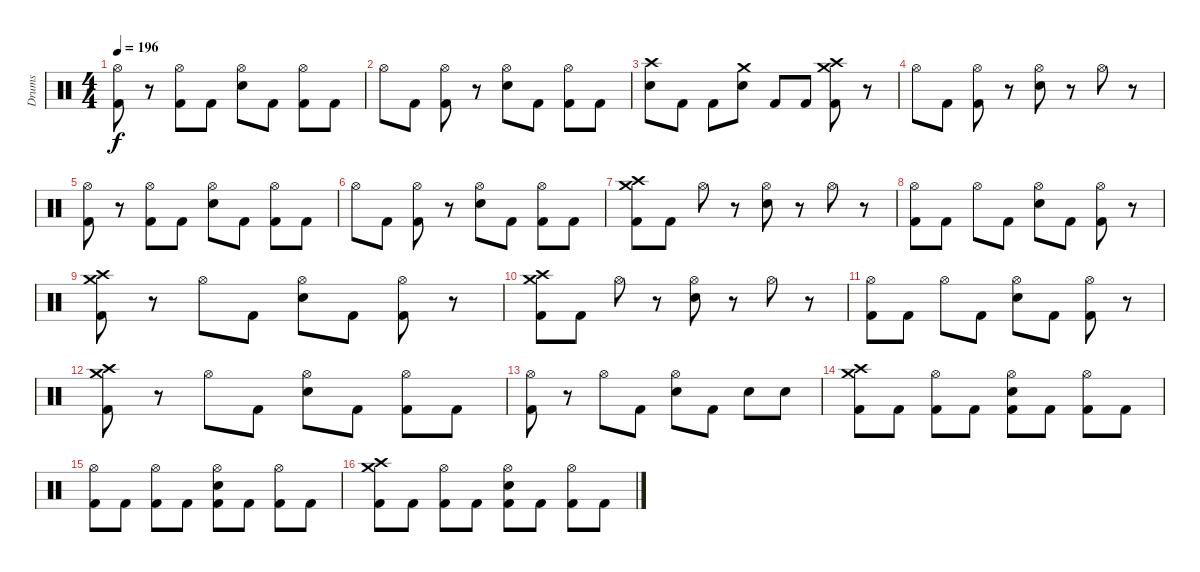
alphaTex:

\track ("Drums" "Drums") {instrument percussion}
\staff {score}
\articulation defaults
\ts (4 4)
\tempo 196
\clef neutral
\ks c
("Hi-Hat (open)" "Kick (hit) 2").8{dy f} r.8 ("Hi-Hat (open)" "Kick (hit) 2").8 "Kick (hit) 2".8 ("Hi-Hat (open)" "Snare (hit) 2").8 "Kick (hit) 2".8 ("Hi-Hat (open)" "Kick (hit) 2").8 "Kick (hit) 2".8 |
"Hi-Hat (open)".8 "Kick (hit) 2".8 ("Hi-Hat (open)" "Kick (hit) 2").8 r.8 ("Hi-Hat (open)" "Snare (hit) 2").8 "Kick (hit) 2".8 ("Hi-Hat (open)" "Kick (hit) 2").8 "Kick (hit) 2".8 |
("Crash high (hit)" "Snare (hit) 2").8 "Kick (hit) 2".8 "Kick (hit) 2".8 ("Crash medium (hit)" "Snare (hit) 2").8 "Kick (hit) 2".8 "Kick (hit) 2".8 ("Crash high (hit)" "Crash medium (hit)" "Kick (hit) 2").8 r.8 |
"Hi-Hat (open)".8 "Kick (hit) 2".8 ("Hi-Hat (open)" "Kick (hit) 2").8 r.8 ("Hi-Hat (open)" "Snare (hit) 2").8 r.8 "Hi-Hat (open)".8 r.8 |
("Hi-Hat (open)" "Kick (hit) 2").8 r.8 ("Hi-Hat (open)" "Kick (hit) 2").8 "Kick (hit) 2".8 ("Hi-Hat (open)" "Snare (hit) 2").8 "Kick (hit) 2".8 ("Hi-Hat (open)" "Kick (hit) 2").8 "Kick (hit) 2".8 |
"Hi-Hat (open)".8 "Kick (hit) 2".8 ("Hi-Hat (open)" "Kick (hit) 2").8 r.8 ("Hi-Hat (open)" "Snare (hit) 2").8 "Kick (hit) 2".8 ("Hi-Hat (open)" "Kick (hit) 2").8 "Kick (hit) 2".8 |
("Crash high (hit)" "Crash medium (hit)" "Kick (hit) 2").8 "Kick (hit) 2".8 "Hi-Hat (open)".8 r.8 ("Hi-Hat (open)" "Snare (hit) 2").8 r.8 "Hi-Hat (open)".8 r.8 |
("Hi-Hat (open)" "Kick (hit) 2").8 "Kick (hit) 2".8 "Hi-Hat (open)".8 "Kick (hit) 2".8 ("Hi-Hat (open)" "Snare (hit) 2").8 "Kick (hit) 2".8 ("Hi-Hat (open)" "Kick (hit) 2").8 r.8 |
("Crash high (hit)" "Crash medium (hit)" "Kick (hit) 2").8 r.8 "Hi-Hat (open)".8 "Kick (hit) 2".8 ("Hi-Hat (open)" "Snare (hit) 2").8 "Kick (hit) 2".8 ("Hi-Hat (open)" "Kick (hit) 2").8 r.8 |
("Crash high (hit)" "Crash medium (hit)" "Kick (hit) 2").8 "Kick (hit) 2".8 "Hi-Hat (open)".8 r.8 ("Hi-Hat (open)" "Snare (hit) 2").8 r.8 "Hi-Hat (open)".8 r.8 |
("Hi-Hat (open)" "Kick (hit) 2").8 "Kick (hit) 2".8 "Hi-Hat (open)".8 "Kick (hit) 2".8 ("Hi-Hat (open)" "Snare (hit) 2").8 "Kick (hit) 2".8 ("Hi-Hat (open)" "Kick (hit) 2").8 r.8 |
("Crash high (hit)" "Crash medium (hit)" "Kick (hit) 2").8 r.8 "Hi-Hat (open)".8 "Kick (hit) 2".8 ("Hi-Hat (open)" "Snare (hit) 2").8 "Kick (hit) 2".8 ("Hi-Hat (open)" "Kick (hit) 2").8 "Kick (hit) 2".8 |
("Hi-Hat (open)" "Kick (hit) 2").8 r.8 "Hi-Hat (open)".8 "Kick (hit) 2".8 ("Hi-Hat (open)" "Snare (hit) 2").8 "Kick (hit) 2".8 "Snare (hit) 2".8 "Snare (hit) 2".8 |
("Crash high (hit)" "Crash medium (hit)" "Kick (hit) 2").8 "Kick (hit) 2".8 ("Hi-Hat (open)" "Kick (hit) 2").8 "Kick (hit) 2".8 ("Hi-Hat (open)" "Snare (hit) 2" "Kick (hit) 2").8 "Kick (hit) 2".8 ("Hi-Hat (open)" "Kick (hit) 2").8 "Kick (hit) 2".8 |
("Hi-Hat (open)" "Kick (hit) 2").8 "Kick (hit) 2".8 ("Hi-Hat (open)" "Kick (hit) 2").8 "Kick (hit) 2".8 ("Hi-Hat (open)" "Snare (hit) 2" "Kick (hit) 2").8 "Kick (hit) 2".8 ("Hi-Hat (open)" "Kick (hit) 2").8 "Kick (hit) 2".8 |
("Crash high (hit)" "Crash medium (hit)" "Kick (hit) 2").8 "Kick (hit) 2".8 ("Hi-Hat (open)" "Kick (hit) 2").8 "Kick (hit) 2".8 ("Hi-Hat (open)" "Snare (hit) 2" "Kick (hit) 2").8 "Kick (hit) 2".8 ("Hi-Hat (open)" "Kick (hit) 2").8 "Kick (hit) 2".8
